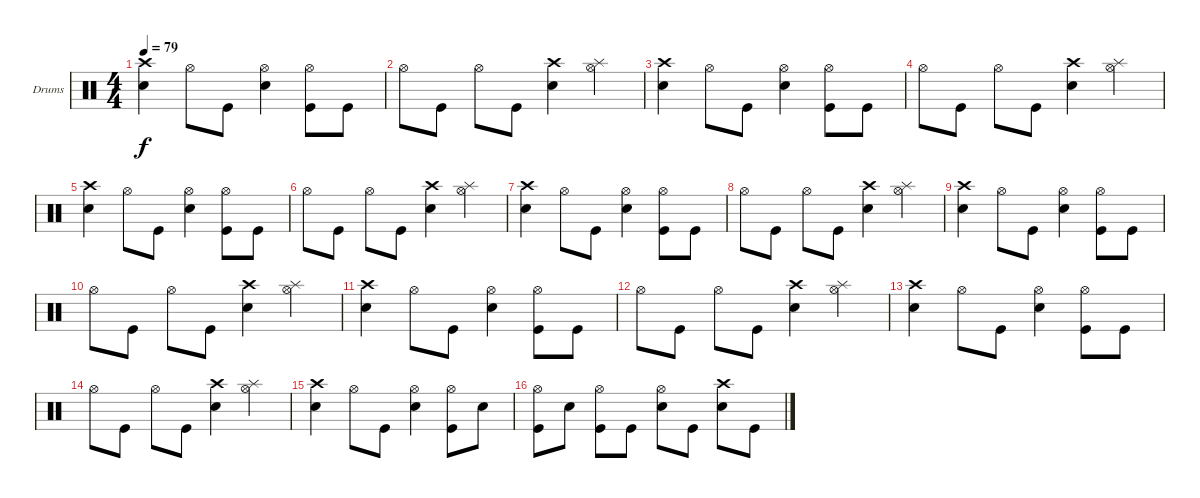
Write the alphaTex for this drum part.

\bracketExtendMode groupsimilarinstruments
\firstSystemTrackNameOrientation horizontal
\otherSystemsTrackNameOrientation horizontal
\track ("Drumkit" "Drums") {instrument percussion}
\staff {score}
\articulation defaults
\ts (4 4)
\tempo 79
\clef neutral
\ks c
("Crash high (hit)" "Snare (hit) 2").4{dy f} "Hi-Hat (open)".8 "Kick (hit)".8 ("Hi-Hat (open)" "Snare (hit) 2").4 ("Hi-Hat (open)" "Kick (hit)").8 "Kick (hit)".8 |
"Hi-Hat (open)".8 "Kick (hit)".8 "Hi-Hat (open)".8 "Kick (hit)".8 ("Crash high (hit)" "Snare (hit) 2").4 ("Splash (hit)" "Hi-Hat (open)").4 |
("Crash high (hit)" "Snare (hit) 2").4 "Hi-Hat (open)".8 "Kick (hit)".8 ("Hi-Hat (open)" "Snare (hit) 2").4 ("Hi-Hat (open)" "Kick (hit)").8 "Kick (hit)".8 |
"Hi-Hat (open)".8 "Kick (hit)".8 "Hi-Hat (open)".8 "Kick (hit)".8 ("Crash high (hit)" "Snare (hit) 2").4 ("Splash (hit)" "Hi-Hat (open)").4 |
("Crash high (hit)" "Snare (hit) 2").4 "Hi-Hat (open)".8 "Kick (hit)".8 ("Hi-Hat (open)" "Snare (hit) 2").4 ("Hi-Hat (open)" "Kick (hit)").8 "Kick (hit)".8 |
"Hi-Hat (open)".8 "Kick (hit)".8 "Hi-Hat (open)".8 "Kick (hit)".8 ("Crash high (hit)" "Snare (hit) 2").4 ("Splash (hit)" "Hi-Hat (open)").4 |
("Crash high (hit)" "Snare (hit) 2").4 "Hi-Hat (open)".8 "Kick (hit)".8 ("Hi-Hat (open)" "Snare (hit) 2").4 ("Hi-Hat (open)" "Kick (hit)").8 "Kick (hit)".8 |
"Hi-Hat (open)".8 "Kick (hit)".8 "Hi-Hat (open)".8 "Kick (hit)".8 ("Crash high (hit)" "Snare (hit) 2").4 ("Splash (hit)" "Hi-Hat (open)").4 |
("Crash high (hit)" "Snare (hit) 2").4 "Hi-Hat (open)".8 "Kick (hit)".8 ("Hi-Hat (open)" "Snare (hit) 2").4 ("Hi-Hat (open)" "Kick (hit)").8 "Kick (hit)".8 |
"Hi-Hat (open)".8 "Kick (hit)".8 "Hi-Hat (open)".8 "Kick (hit)".8 ("Crash high (hit)" "Snare (hit) 2").4 ("Splash (hit)" "Hi-Hat (open)").4 |
("Crash high (hit)" "Snare (hit) 2").4 "Hi-Hat (open)".8 "Kick (hit)".8 ("Hi-Hat (open)" "Snare (hit) 2").4 ("Hi-Hat (open)" "Kick (hit)").8 "Kick (hit)".8 |
"Hi-Hat (open)".8 "Kick (hit)".8 "Hi-Hat (open)".8 "Kick (hit)".8 ("Crash high (hit)" "Snare (hit) 2").4 ("Splash (hit)" "Hi-Hat (open)").4 |
("Crash high (hit)" "Snare (hit) 2").4 "Hi-Hat (open)".8 "Kick (hit)".8 ("Hi-Hat (open)" "Snare (hit) 2").4 ("Hi-Hat (open)" "Kick (hit)").8 "Kick (hit)".8 |
"Hi-Hat (open)".8 "Kick (hit)".8 "Hi-Hat (open)".8 "Kick (hit)".8 ("Crash high (hit)" "Snare (hit) 2").4 ("Splash (hit)" "Hi-Hat (open)").4 |
("Crash high (hit)" "Snare (hit) 2").4 "Hi-Hat (open)".8 "Kick (hit)".8 ("Hi-Hat (open)" "Snare (hit) 2").4 ("Hi-Hat (open)" "Kick (hit)").8 "Snare (hit) 2".8 |
("Hi-Hat (open)" "Kick (hit)").8 "Snare (hit) 2".8 ("Hi-Hat (open)" "Kick (hit)").8 "Kick (hit)".8 ("Hi-Hat (open)" "Snare (hit) 2").8 "Kick (hit)".8 ("Crash high (hit)" "Snare (hit) 2").8 "Kick (hit)".8
